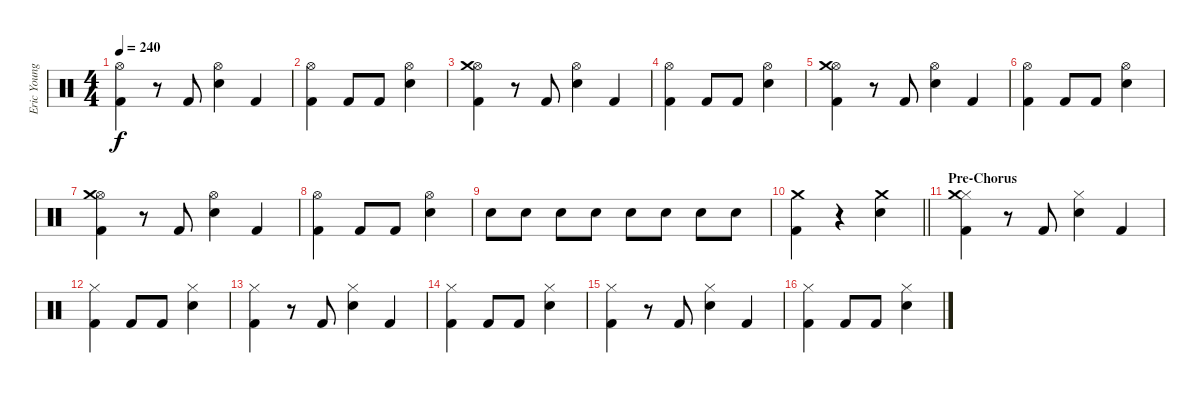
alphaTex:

\track ("Eric Young (Drums)" "Eric Young") {instrument percussion}
\staff {score}
\articulation defaults
\ts (4 4)
\tempo 240
\clef neutral
\ks c
("Hi-Hat (open)" "Kick (hit) 2").4{dy f} r.8 "Kick (hit) 2".8 ("Hi-Hat (open)" "Snare (hit) 2").4 "Kick (hit) 2".4 |
("Hi-Hat (open)" "Kick (hit) 2").4 "Kick (hit) 2".8 "Kick (hit) 2".8 ("Hi-Hat (open)" "Snare (hit) 2").4 |
("Hi-Hat (open)" "Kick (hit) 2" "Crash medium (hit)").4 r.8 "Kick (hit) 2".8 ("Hi-Hat (open)" "Snare (hit) 2").4 "Kick (hit) 2".4 |
("Hi-Hat (open)" "Kick (hit) 2").4 "Kick (hit) 2".8 "Kick (hit) 2".8 ("Hi-Hat (open)" "Snare (hit) 2").4 |
("Hi-Hat (open)" "Kick (hit) 2" "Crash medium (hit)").4 r.8 "Kick (hit) 2".8 ("Hi-Hat (open)" "Snare (hit) 2").4 "Kick (hit) 2".4 |
("Hi-Hat (open)" "Kick (hit) 2").4 "Kick (hit) 2".8 "Kick (hit) 2".8 ("Hi-Hat (open)" "Snare (hit) 2").4 |
("Hi-Hat (open)" "Kick (hit) 2" "Crash medium (hit)").4 r.8 "Kick (hit) 2".8 ("Hi-Hat (open)" "Snare (hit) 2").4 "Kick (hit) 2".4 |
("Hi-Hat (open)" "Kick (hit) 2").4 "Kick (hit) 2".8 "Kick (hit) 2".8 ("Hi-Hat (open)" "Snare (hit) 2").4 |
"Snare (hit) 2".8 "Snare (hit) 2".8 "Snare (hit) 2".8 "Snare (hit) 2".8 "Snare (hit) 2".8 "Snare (hit) 2".8 "Snare (hit) 2".8 "Snare (hit) 2".8 |
\barLineRight lightlight
("Kick (hit) 2" "Crash medium (hit)").4 r.4 ("Snare (hit) 2" "Crash medium (hit)").4 |
\section ("" "Pre-Chorus")
("Hi-Hat (closed)" "Kick (hit) 2" "Crash medium (hit)").4 r.8 "Kick (hit) 2".8 ("Hi-Hat (closed)" "Snare (hit) 2").4 "Kick (hit) 2".4 |
("Hi-Hat (closed)" "Kick (hit) 2").4 "Kick (hit) 2".8 "Kick (hit) 2".8 ("Hi-Hat (closed)" "Snare (hit) 2").4 |
("Hi-Hat (closed)" "Kick (hit) 2").4 r.8 "Kick (hit) 2".8 ("Hi-Hat (closed)" "Snare (hit) 2").4 "Kick (hit) 2".4 |
("Hi-Hat (closed)" "Kick (hit) 2").4 "Kick (hit) 2".8 "Kick (hit) 2".8 ("Hi-Hat (closed)" "Snare (hit) 2").4 |
("Hi-Hat (closed)" "Kick (hit) 2").4 r.8 "Kick (hit) 2".8 ("Hi-Hat (closed)" "Snare (hit) 2").4 "Kick (hit) 2".4 |
("Hi-Hat (closed)" "Kick (hit) 2").4 "Kick (hit) 2".8 "Kick (hit) 2".8 ("Hi-Hat (closed)" "Snare (hit) 2").4
